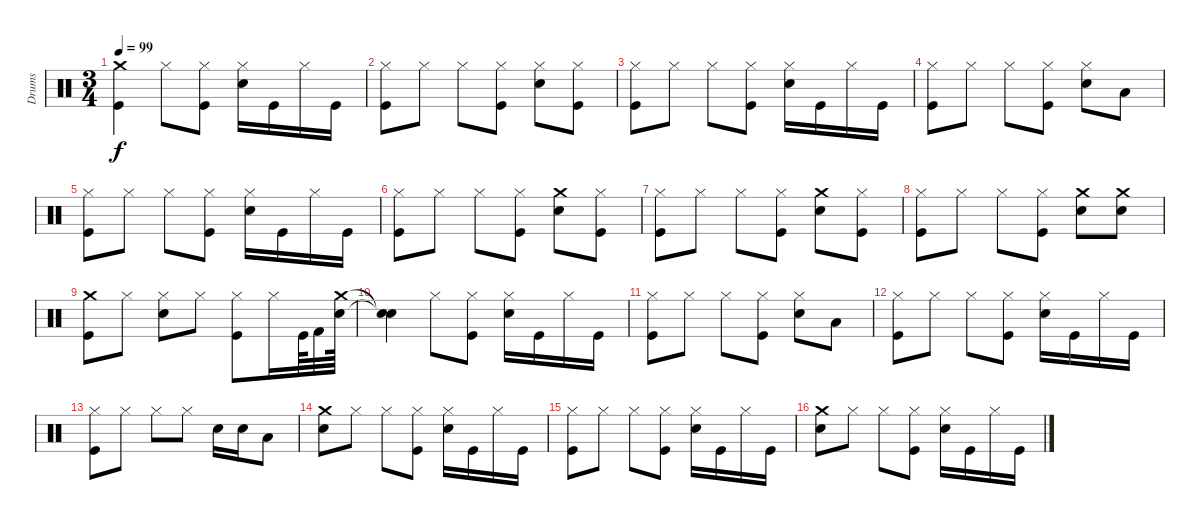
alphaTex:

\track ("Drums" "Drums") {instrument percussion}
\staff {score}
\articulation defaults
\ts (3 4)
\tempo 99
\clef neutral
\ks c
("Crash medium (hit)" "Kick (hit)").4{dy f} "Hi-Hat (closed)".8 ("Kick (hit)" "Hi-Hat (closed)").8 ("Snare (hit) 2" "Hi-Hat (closed)").16 "Kick (hit)".16 "Hi-Hat (closed)".16 "Kick (hit)".16 |
("Hi-Hat (closed)" "Kick (hit)").8 "Hi-Hat (closed)".8 "Hi-Hat (closed)".8 ("Kick (hit)" "Hi-Hat (closed)").8 ("Snare (hit) 2" "Hi-Hat (closed)").8 ("Kick (hit)" "Hi-Hat (closed)").8 |
("Kick (hit)" "Hi-Hat (closed)").8 "Hi-Hat (closed)".8 "Hi-Hat (closed)".8 ("Kick (hit)" "Hi-Hat (closed)").8 ("Snare (hit) 2" "Hi-Hat (closed)").16 "Kick (hit)".16 "Hi-Hat (closed)".16 "Kick (hit)".16 |
("Hi-Hat (closed)" "Kick (hit)").8 "Hi-Hat (closed)".8 "Hi-Hat (closed)".8 ("Kick (hit)" "Hi-Hat (closed)").8 ("Snare (hit) 2" "Hi-Hat (closed)").8 "Low Tom (hit)".8 |
("Kick (hit)" "Hi-Hat (closed)").8 "Hi-Hat (closed)".8 "Hi-Hat (closed)".8 ("Kick (hit)" "Hi-Hat (closed)").8 ("Snare (hit) 2" "Hi-Hat (closed)").16 "Kick (hit)".16 "Hi-Hat (closed)".16 "Kick (hit)".16 |
("Hi-Hat (closed)" "Kick (hit)").8 "Hi-Hat (closed)".8 "Hi-Hat (closed)".8 ("Kick (hit)" "Hi-Hat (closed)").8 ("Crash medium (hit)" "Snare (hit) 2").8 ("Kick (hit)" "Hi-Hat (closed)").8 |
("Hi-Hat (closed)" "Kick (hit)").8 "Hi-Hat (closed)".8 "Hi-Hat (closed)".8 ("Kick (hit)" "Hi-Hat (closed)").8 ("Snare (hit) 2" "Crash medium (hit)").8 ("Kick (hit)" "Hi-Hat (closed)").8 |
("Hi-Hat (closed)" "Kick (hit)").8 "Hi-Hat (closed)".8 "Hi-Hat (closed)".8 ("Kick (hit)" "Hi-Hat (closed)").8 ("Crash medium (hit)" "Snare (hit) 2").8 ("Crash medium (hit)" "Snare (hit) 2").8 |
("Crash medium (hit)" "Kick (hit)").8 "Hi-Hat (closed)".8 ("Snare (hit) 2" "Hi-Hat (closed)").8 "Hi-Hat (closed)".8 ("Kick (hit)" "Hi-Hat (closed)").8 "Hi-Hat (closed)".16 "Kick (hit)".64 "Kick (hit) 2".32 ("Snare (hit) 2" "Crash medium (hit)").64 |
("Snare (hit)"{t} "Snare (hit)"{t}).4 "Hi-Hat (closed)".8 ("Kick (hit)" "Hi-Hat (closed)").8 ("Hi-Hat (closed)" "Snare (hit) 2").16 "Kick (hit)".16 "Hi-Hat (closed)".16 "Kick (hit)".16 |
("Hi-Hat (closed)" "Kick (hit)").8 "Hi-Hat (closed)".8 "Hi-Hat (closed)".8 ("Kick (hit)" "Hi-Hat (closed)").8 ("Snare (hit) 2" "Hi-Hat (closed)").8 "Low Tom (hit)".8 |
("Hi-Hat (closed)" "Kick (hit)").8 "Hi-Hat (closed)".8 "Hi-Hat (closed)".8 ("Kick (hit)" "Hi-Hat (closed)").8 ("Hi-Hat (closed)" "Snare (hit) 2").16 "Kick (hit)".16 "Hi-Hat (closed)".16 "Kick (hit)".16 |
("Hi-Hat (closed)" "Kick (hit)").8 "Hi-Hat (closed)".8 "Hi-Hat (closed)".8 "Hi-Hat (closed)".8 "Snare (hit) 2".16 "Snare (hit) 2".16 "Low Tom (hit)".8 |
("Snare (hit) 2" "Crash medium (hit)").8 "Hi-Hat (closed)".8 "Hi-Hat (closed)".8 ("Kick (hit)" "Hi-Hat (closed)").8 ("Snare (hit) 2" "Hi-Hat (closed)").16 "Kick (hit)".16 "Hi-Hat (closed)".16 "Kick (hit)".16 |
("Hi-Hat (closed)" "Kick (hit)").8 "Hi-Hat (closed)".8 "Hi-Hat (closed)".8 ("Kick (hit)" "Hi-Hat (closed)").8 ("Hi-Hat (closed)" "Snare (hit) 2").16 "Kick (hit)".16 "Hi-Hat (closed)".16 "Kick (hit)".16 |
("Snare (hit) 2" "Crash medium (hit)").8 "Hi-Hat (closed)".8 "Hi-Hat (closed)".8 ("Kick (hit)" "Hi-Hat (closed)").8 ("Snare (hit) 2" "Hi-Hat (closed)").16 "Kick (hit)".16 "Hi-Hat (closed)".16 "Kick (hit)".16
